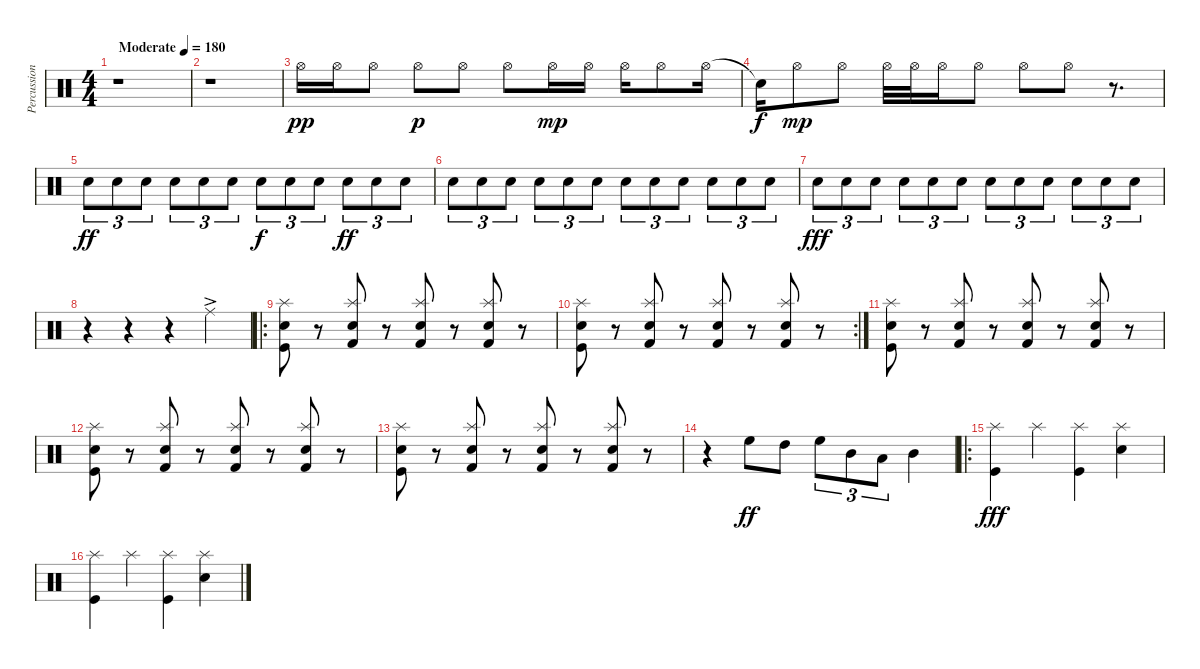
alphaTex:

\track ("Percussion" "Percussion") {instrument percussion}
\staff {score}
\articulation defaults
\ts (4 4)
\tempo (180 "Moderate")
\clef neutral
\ks c
r.1{dy pp} |
r.1 |
"Hi-Hat (open)".16 "Hi-Hat (open)".16 "Hi-Hat (open)".8 "Hi-Hat (open)".8{dy p} "Hi-Hat (open)".8 "Hi-Hat (open)".8 "Hi-Hat (open)".16{dy mp} "Hi-Hat (open)".16 "Hi-Hat (open)".16 "Hi-Hat (open)".8 "Hi-Hat (open)".16 |
"Snare (hit)"{t}.16{dy f} "Hi-Hat (open)".8{dy mp} "Hi-Hat (open)".8 "Hi-Hat (open)".32 "Hi-Hat (open)".32 "Hi-Hat (open)".16 "Hi-Hat (open)".8 "Hi-Hat (open)".8 "Hi-Hat (open)".8 r.8{d} |
"Snare (hit) 2".8{tu (3 2) dy ff} "Snare (hit) 2".8{tu (3 2)} "Snare (hit) 2".8{tu (3 2)} "Snare (hit) 2".8{tu (3 2)} "Snare (hit) 2".8{tu (3 2)} "Snare (hit) 2".8{tu (3 2)} "Snare (hit) 2".8{tu (3 2) dy f} "Snare (hit) 2".8{tu (3 2)} "Snare (hit) 2".8{tu (3 2)} "Snare (hit) 2".8{tu (3 2) dy ff} "Snare (hit) 2".8{tu (3 2)} "Snare (hit) 2".8{tu (3 2)} |
"Snare (hit) 2".8{tu (3 2)} "Snare (hit) 2".8{tu (3 2)} "Snare (hit) 2".8{tu (3 2)} "Snare (hit) 2".8{tu (3 2)} "Snare (hit) 2".8{tu (3 2)} "Snare (hit) 2".8{tu (3 2)} "Snare (hit) 2".8{tu (3 2)} "Snare (hit) 2".8{tu (3 2)} "Snare (hit) 2".8{tu (3 2)} "Snare (hit) 2".8{tu (3 2)} "Snare (hit) 2".8{tu (3 2)} "Snare (hit) 2".8{tu (3 2)} |
"Snare (hit) 2".8{tu (3 2) dy fff} "Snare (hit) 2".8{tu (3 2)} "Snare (hit) 2".8{tu (3 2)} "Snare (hit) 2".8{tu (3 2)} "Snare (hit) 2".8{tu (3 2)} "Snare (hit) 2".8{tu (3 2)} "Snare (hit) 2".8{tu (3 2)} "Snare (hit) 2".8{tu (3 2)} "Snare (hit) 2".8{tu (3 2)} "Snare (hit) 2".8{tu (3 2)} "Snare (hit) 2".8{tu (3 2)} "Snare (hit) 2".8{tu (3 2)} |
r.4 r.4 r.4 "Ride (middle)"{ac}.4 |
\ro
("Kick (hit)" "Snare (hit) 2" "Splash (hit)").8 r.8 ("Snare (hit) 2" "Kick (hit) 2" "Splash (hit)").8 r.8 ("Snare (hit) 2" "Kick (hit) 2" "Splash (hit)").8 r.8 ("Snare (hit) 2" "Kick (hit) 2" "Splash (hit)").8 r.8 |
\rc 2
("Kick (hit)" "Snare (hit) 2" "Splash (hit)").8 r.8 ("Snare (hit) 2" "Kick (hit) 2" "Splash (hit)").8 r.8 ("Snare (hit) 2" "Kick (hit) 2" "Splash (hit)").8 r.8 ("Snare (hit) 2" "Kick (hit) 2" "Splash (hit)").8 r.8 |
("Kick (hit)" "Snare (hit) 2" "Splash (hit)").8 r.8 ("Snare (hit) 2" "Kick (hit) 2" "Splash (hit)").8 r.8 ("Snare (hit) 2" "Kick (hit) 2" "Splash (hit)").8 r.8 ("Snare (hit) 2" "Kick (hit) 2" "Splash (hit)").8 r.8 |
("Kick (hit)" "Snare (hit) 2" "Splash (hit)").8 r.8 ("Snare (hit) 2" "Kick (hit) 2" "Splash (hit)").8 r.8 ("Snare (hit) 2" "Kick (hit) 2" "Splash (hit)").8 r.8 ("Snare (hit) 2" "Kick (hit) 2" "Splash (hit)").8 r.8 |
("Kick (hit)" "Snare (hit) 2" "Splash (hit)").8 r.8 ("Snare (hit) 2" "Kick (hit) 2" "Splash (hit)").8 r.8 ("Snare (hit) 2" "Kick (hit) 2" "Splash (hit)").8 r.8 ("Snare (hit) 2" "Kick (hit) 2" "Splash (hit)").8 r.8 |
r.4 "High Floor Tom (hit)".8{dy ff} "High Tom (hit)".8 "High Floor Tom (hit)".8{tu (3 2)} "Mid Tom (hit)".8{tu (3 2)} "Low Tom (hit)".8{tu (3 2)} "Mid Tom (hit)".4 |
\ro
("Kick (hit)" "Splash (hit)").4{dy fff} "Splash (hit)".4 ("Kick (hit)" "Splash (hit)").4 ("Snare (hit) 2" "Splash (hit)").4 |
("Kick (hit)" "Splash (hit)").4 "Splash (hit)".4 ("Kick (hit)" "Splash (hit)").4 ("Snare (hit) 2" "Splash (hit)").4
